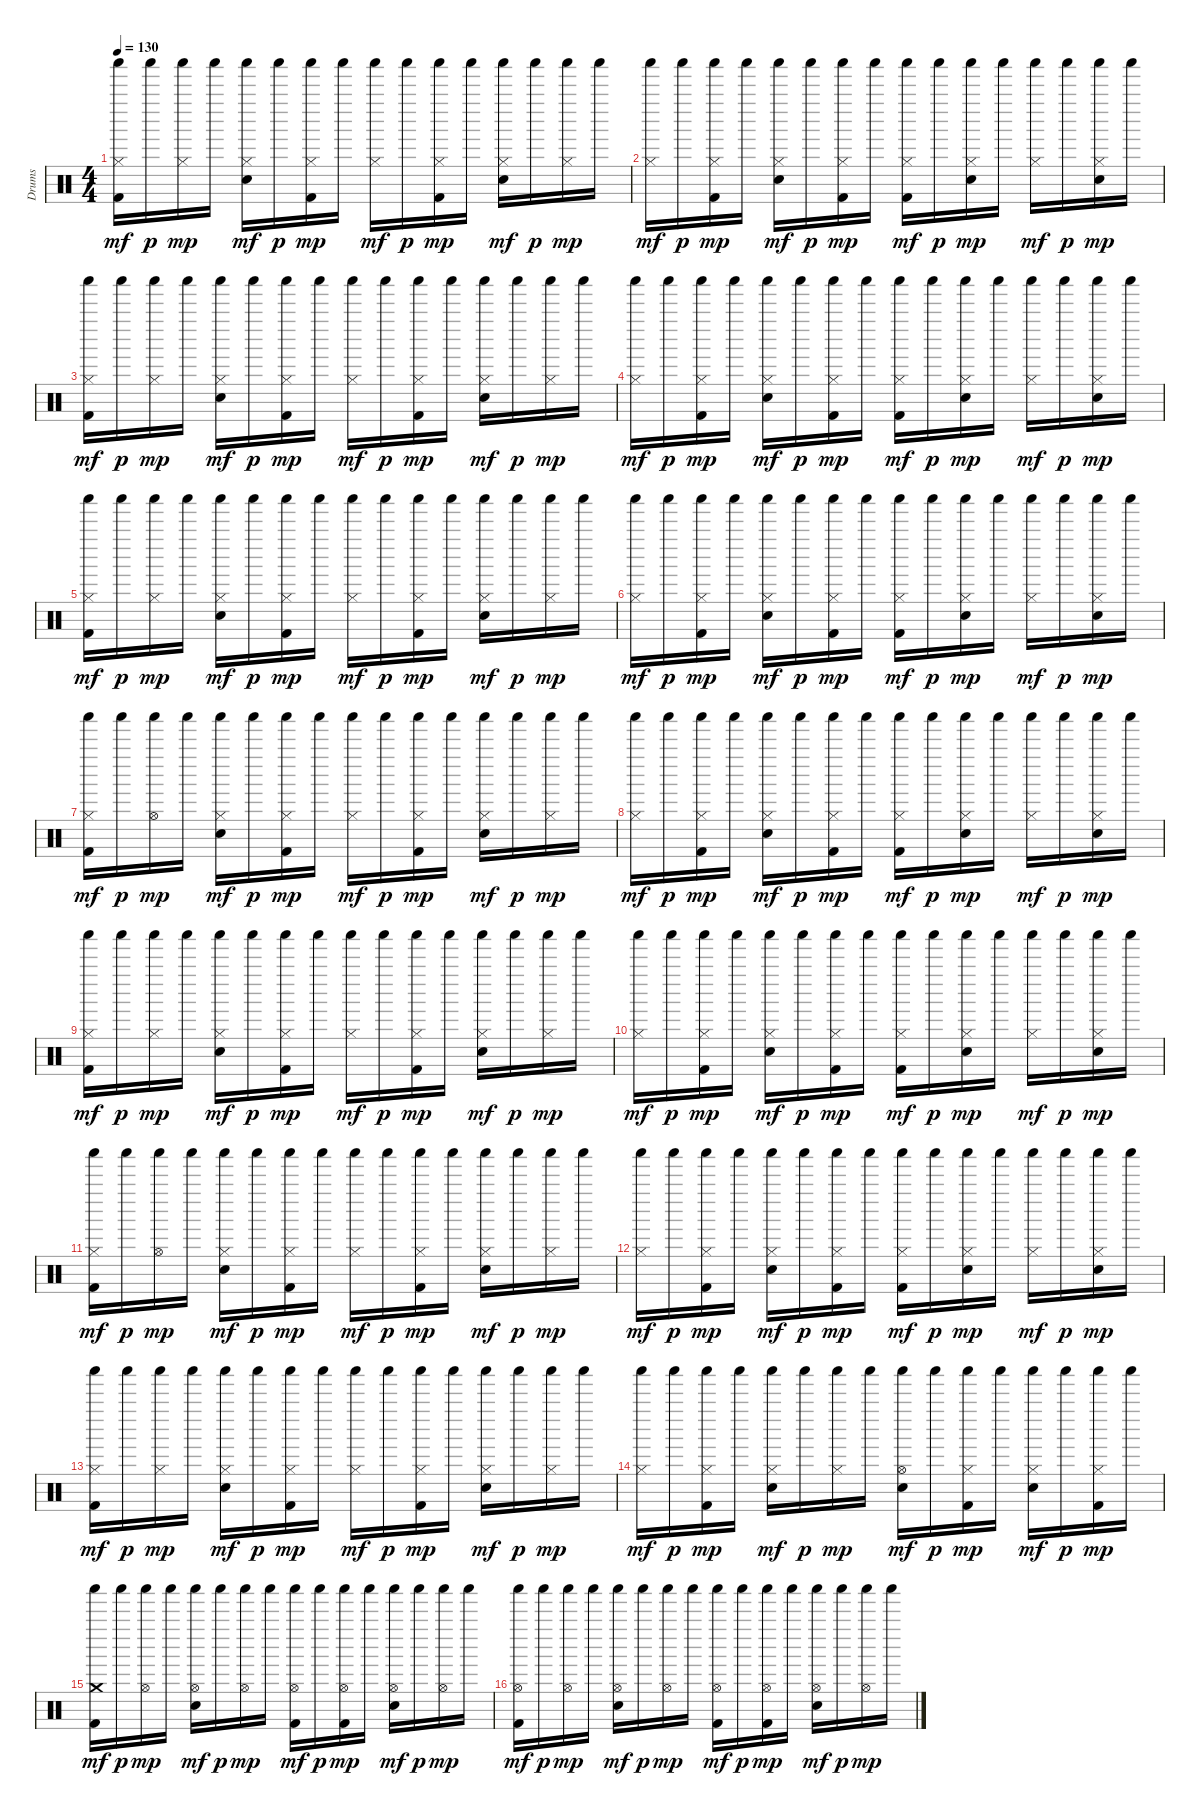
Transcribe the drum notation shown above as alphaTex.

\track ("Drums" "Drums") {instrument percussion}
\staff {score}
\articulation defaults
\ts (4 4)
\tempo 130
\clef neutral
\ks c
("Kick (hit) 2" "Hi-Hat (closed)" "Shaker (hit)").16{dy mf} "Shaker (hit)".16{dy p} ("Hi-Hat (closed)" "Shaker (hit)").16{dy mp} "Shaker (hit)".16 ("Snare (hit) 2" "Hi-Hat (closed)" "Shaker (hit)").16{dy mf} "Shaker (hit)".16{dy p} ("Kick (hit) 2" "Hi-Hat (closed)" "Shaker (hit)").16{dy mp} "Shaker (hit)".16 ("Hi-Hat (closed)" "Shaker (hit)").16{dy mf} "Shaker (hit)".16{dy p} ("Kick (hit) 2" "Hi-Hat (closed)" "Shaker (hit)").16{dy mp} "Shaker (hit)".16 ("Snare (hit) 2" "Hi-Hat (closed)" "Shaker (hit)").16{dy mf} "Shaker (hit)".16{dy p} ("Hi-Hat (closed)" "Shaker (hit)").16{dy mp} "Shaker (hit)".16 |
("Hi-Hat (closed)" "Shaker (hit)").16{dy mf} "Shaker (hit)".16{dy p} ("Kick (hit) 2" "Hi-Hat (closed)" "Shaker (hit)").16{dy mp} "Shaker (hit)".16 ("Snare (hit) 2" "Hi-Hat (closed)" "Shaker (hit)").16{dy mf} "Shaker (hit)".16{dy p} ("Kick (hit) 2" "Hi-Hat (closed)" "Shaker (hit)").16{dy mp} "Shaker (hit)".16 ("Kick (hit) 2" "Hi-Hat (closed)" "Shaker (hit)").16{dy mf} "Shaker (hit)".16{dy p} ("Snare (hit) 2" "Hi-Hat (closed)" "Shaker (hit)").16{dy mp} "Shaker (hit)".16 ("Hi-Hat (closed)" "Shaker (hit)").16{dy mf} "Shaker (hit)".16{dy p} ("Snare (hit) 2" "Hi-Hat (closed)" "Shaker (hit)").16{dy mp} "Shaker (hit)".16 |
("Kick (hit) 2" "Hi-Hat (closed)" "Shaker (hit)").16{dy mf} "Shaker (hit)".16{dy p} ("Hi-Hat (closed)" "Shaker (hit)").16{dy mp} "Shaker (hit)".16 ("Snare (hit) 2" "Hi-Hat (closed)" "Shaker (hit)").16{dy mf} "Shaker (hit)".16{dy p} ("Kick (hit) 2" "Hi-Hat (closed)" "Shaker (hit)").16{dy mp} "Shaker (hit)".16 ("Hi-Hat (closed)" "Shaker (hit)").16{dy mf} "Shaker (hit)".16{dy p} ("Kick (hit) 2" "Hi-Hat (closed)" "Shaker (hit)").16{dy mp} "Shaker (hit)".16 ("Snare (hit) 2" "Hi-Hat (closed)" "Shaker (hit)").16{dy mf} "Shaker (hit)".16{dy p} ("Hi-Hat (closed)" "Shaker (hit)").16{dy mp} "Shaker (hit)".16 |
("Hi-Hat (closed)" "Shaker (hit)").16{dy mf} "Shaker (hit)".16{dy p} ("Kick (hit) 2" "Hi-Hat (closed)" "Shaker (hit)").16{dy mp} "Shaker (hit)".16 ("Snare (hit) 2" "Hi-Hat (closed)" "Shaker (hit)").16{dy mf} "Shaker (hit)".16{dy p} ("Kick (hit) 2" "Hi-Hat (closed)" "Shaker (hit)").16{dy mp} "Shaker (hit)".16 ("Kick (hit) 2" "Hi-Hat (closed)" "Shaker (hit)").16{dy mf} "Shaker (hit)".16{dy p} ("Snare (hit) 2" "Hi-Hat (closed)" "Shaker (hit)").16{dy mp} "Shaker (hit)".16 ("Hi-Hat (closed)" "Shaker (hit)").16{dy mf} "Shaker (hit)".16{dy p} ("Snare (hit) 2" "Hi-Hat (closed)" "Shaker (hit)").16{dy mp} "Shaker (hit)".16 |
("Kick (hit) 2" "Hi-Hat (closed)" "Shaker (hit)").16{dy mf} "Shaker (hit)".16{dy p} ("Hi-Hat (closed)" "Shaker (hit)").16{dy mp} "Shaker (hit)".16 ("Snare (hit) 2" "Hi-Hat (closed)" "Shaker (hit)").16{dy mf} "Shaker (hit)".16{dy p} ("Kick (hit) 2" "Hi-Hat (closed)" "Shaker (hit)").16{dy mp} "Shaker (hit)".16 ("Hi-Hat (closed)" "Shaker (hit)").16{dy mf} "Shaker (hit)".16{dy p} ("Kick (hit) 2" "Hi-Hat (closed)" "Shaker (hit)").16{dy mp} "Shaker (hit)".16 ("Snare (hit) 2" "Hi-Hat (closed)" "Shaker (hit)").16{dy mf} "Shaker (hit)".16{dy p} ("Hi-Hat (closed)" "Shaker (hit)").16{dy mp} "Shaker (hit)".16 |
("Hi-Hat (closed)" "Shaker (hit)").16{dy mf} "Shaker (hit)".16{dy p} ("Kick (hit) 2" "Hi-Hat (closed)" "Shaker (hit)").16{dy mp} "Shaker (hit)".16 ("Snare (hit) 2" "Hi-Hat (closed)" "Shaker (hit)").16{dy mf} "Shaker (hit)".16{dy p} ("Kick (hit) 2" "Hi-Hat (closed)" "Shaker (hit)").16{dy mp} "Shaker (hit)".16 ("Kick (hit) 2" "Hi-Hat (closed)" "Shaker (hit)").16{dy mf} "Shaker (hit)".16{dy p} ("Snare (hit) 2" "Hi-Hat (closed)" "Shaker (hit)").16{dy mp} "Shaker (hit)".16 ("Hi-Hat (closed)" "Shaker (hit)").16{dy mf} "Shaker (hit)".16{dy p} ("Snare (hit) 2" "Hi-Hat (closed)" "Shaker (hit)").16{dy mp} "Shaker (hit)".16 |
("Kick (hit) 2" "Hi-Hat (closed)" "Shaker (hit)").16{dy mf} "Shaker (hit)".16{dy p} ("Hi-Hat (open)" "Shaker (hit)").16{dy mp} "Shaker (hit)".16 ("Snare (hit) 2" "Hi-Hat (closed)" "Shaker (hit)").16{dy mf} "Shaker (hit)".16{dy p} ("Kick (hit) 2" "Hi-Hat (closed)" "Shaker (hit)").16{dy mp} "Shaker (hit)".16 ("Hi-Hat (closed)" "Shaker (hit)").16{dy mf} "Shaker (hit)".16{dy p} ("Kick (hit) 2" "Hi-Hat (closed)" "Shaker (hit)").16{dy mp} "Shaker (hit)".16 ("Snare (hit) 2" "Hi-Hat (closed)" "Shaker (hit)").16{dy mf} "Shaker (hit)".16{dy p} ("Hi-Hat (closed)" "Shaker (hit)").16{dy mp} "Shaker (hit)".16 |
("Hi-Hat (closed)" "Shaker (hit)").16{dy mf} "Shaker (hit)".16{dy p} ("Kick (hit) 2" "Hi-Hat (closed)" "Shaker (hit)").16{dy mp} "Shaker (hit)".16 ("Snare (hit) 2" "Hi-Hat (closed)" "Shaker (hit)").16{dy mf} "Shaker (hit)".16{dy p} ("Kick (hit) 2" "Hi-Hat (closed)" "Shaker (hit)").16{dy mp} "Shaker (hit)".16 ("Kick (hit) 2" "Hi-Hat (closed)" "Shaker (hit)").16{dy mf} "Shaker (hit)".16{dy p} ("Snare (hit) 2" "Hi-Hat (closed)" "Shaker (hit)").16{dy mp} "Shaker (hit)".16 ("Hi-Hat (closed)" "Shaker (hit)").16{dy mf} "Shaker (hit)".16{dy p} ("Snare (hit) 2" "Hi-Hat (closed)" "Shaker (hit)").16{dy mp} "Shaker (hit)".16 |
("Kick (hit) 2" "Hi-Hat (closed)" "Shaker (hit)").16{dy mf} "Shaker (hit)".16{dy p} ("Hi-Hat (closed)" "Shaker (hit)").16{dy mp} "Shaker (hit)".16 ("Snare (hit) 2" "Hi-Hat (closed)" "Shaker (hit)").16{dy mf} "Shaker (hit)".16{dy p} ("Kick (hit) 2" "Hi-Hat (closed)" "Shaker (hit)").16{dy mp} "Shaker (hit)".16 ("Hi-Hat (closed)" "Shaker (hit)").16{dy mf} "Shaker (hit)".16{dy p} ("Kick (hit) 2" "Hi-Hat (closed)" "Shaker (hit)").16{dy mp} "Shaker (hit)".16 ("Snare (hit) 2" "Hi-Hat (closed)" "Shaker (hit)").16{dy mf} "Shaker (hit)".16{dy p} ("Hi-Hat (closed)" "Shaker (hit)").16{dy mp} "Shaker (hit)".16 |
("Hi-Hat (closed)" "Shaker (hit)").16{dy mf} "Shaker (hit)".16{dy p} ("Kick (hit) 2" "Hi-Hat (closed)" "Shaker (hit)").16{dy mp} "Shaker (hit)".16 ("Snare (hit) 2" "Hi-Hat (closed)" "Shaker (hit)").16{dy mf} "Shaker (hit)".16{dy p} ("Kick (hit) 2" "Hi-Hat (closed)" "Shaker (hit)").16{dy mp} "Shaker (hit)".16 ("Kick (hit) 2" "Hi-Hat (closed)" "Shaker (hit)").16{dy mf} "Shaker (hit)".16{dy p} ("Snare (hit) 2" "Hi-Hat (closed)" "Shaker (hit)").16{dy mp} "Shaker (hit)".16 ("Hi-Hat (closed)" "Shaker (hit)").16{dy mf} "Shaker (hit)".16{dy p} ("Snare (hit) 2" "Hi-Hat (closed)" "Shaker (hit)").16{dy mp} "Shaker (hit)".16 |
("Kick (hit) 2" "Hi-Hat (closed)" "Shaker (hit)").16{dy mf} "Shaker (hit)".16{dy p} ("Hi-Hat (open)" "Shaker (hit)").16{dy mp} "Shaker (hit)".16 ("Snare (hit) 2" "Hi-Hat (closed)" "Shaker (hit)").16{dy mf} "Shaker (hit)".16{dy p} ("Kick (hit) 2" "Hi-Hat (closed)" "Shaker (hit)").16{dy mp} "Shaker (hit)".16 ("Hi-Hat (closed)" "Shaker (hit)").16{dy mf} "Shaker (hit)".16{dy p} ("Kick (hit) 2" "Hi-Hat (closed)" "Shaker (hit)").16{dy mp} "Shaker (hit)".16 ("Snare (hit) 2" "Hi-Hat (closed)" "Shaker (hit)").16{dy mf} "Shaker (hit)".16{dy p} ("Hi-Hat (closed)" "Shaker (hit)").16{dy mp} "Shaker (hit)".16 |
("Hi-Hat (closed)" "Shaker (hit)").16{dy mf} "Shaker (hit)".16{dy p} ("Kick (hit) 2" "Hi-Hat (closed)" "Shaker (hit)").16{dy mp} "Shaker (hit)".16 ("Snare (hit) 2" "Hi-Hat (closed)" "Shaker (hit)").16{dy mf} "Shaker (hit)".16{dy p} ("Kick (hit) 2" "Hi-Hat (closed)" "Shaker (hit)").16{dy mp} "Shaker (hit)".16 ("Kick (hit) 2" "Hi-Hat (closed)" "Shaker (hit)").16{dy mf} "Shaker (hit)".16{dy p} ("Snare (hit) 2" "Hi-Hat (closed)" "Shaker (hit)").16{dy mp} "Shaker (hit)".16 ("Hi-Hat (closed)" "Shaker (hit)").16{dy mf} "Shaker (hit)".16{dy p} ("Snare (hit) 2" "Hi-Hat (closed)" "Shaker (hit)").16{dy mp} "Shaker (hit)".16 |
("Kick (hit) 2" "Hi-Hat (closed)" "Shaker (hit)").16{dy mf} "Shaker (hit)".16{dy p} ("Hi-Hat (closed)" "Shaker (hit)").16{dy mp} "Shaker (hit)".16 ("Snare (hit) 2" "Hi-Hat (closed)" "Shaker (hit)").16{dy mf} "Shaker (hit)".16{dy p} ("Kick (hit) 2" "Hi-Hat (closed)" "Shaker (hit)").16{dy mp} "Shaker (hit)".16 ("Hi-Hat (closed)" "Shaker (hit)").16{dy mf} "Shaker (hit)".16{dy p} ("Kick (hit) 2" "Hi-Hat (closed)" "Shaker (hit)").16{dy mp} "Shaker (hit)".16 ("Snare (hit) 2" "Hi-Hat (closed)" "Shaker (hit)").16{dy mf} "Shaker (hit)".16{dy p} ("Hi-Hat (closed)" "Shaker (hit)").16{dy mp} "Shaker (hit)".16 |
("Hi-Hat (closed)" "Shaker (hit)").16{dy mf} "Shaker (hit)".16{dy p} ("Kick (hit) 2" "Hi-Hat (closed)" "Shaker (hit)").16{dy mp} "Shaker (hit)".16 ("Snare (hit) 2" "Hi-Hat (closed)" "Shaker (hit)").16{dy mf} "Shaker (hit)".16{dy p} ("Hi-Hat (closed)" "Shaker (hit)").16{dy mp} "Shaker (hit)".16 ("Snare (hit) 2" "Hi-Hat (open)" "Shaker (hit)").16{dy mf} "Shaker (hit)".16{dy p} ("Kick (hit) 2" "Hi-Hat (closed)" "Shaker (hit)").16{dy mp} "Shaker (hit)".16 ("Snare (hit) 2" "Hi-Hat (closed)" "Shaker (hit)").16{dy mf} "Shaker (hit)".16{dy p} ("Kick (hit) 2" "Hi-Hat (closed)" "Shaker (hit)").16{dy mp} "Shaker (hit)".16 |
("Kick (hit) 2" "Crash medium (hit)" "Shaker (hit)").16{dy mf} "Shaker (hit)".16{dy p} ("Hi-Hat (open)" "Shaker (hit)").16{dy mp} "Shaker (hit)".16 ("Snare (hit) 2" "Hi-Hat (open)" "Shaker (hit)").16{dy mf} "Shaker (hit)".16{dy p} ("Hi-Hat (open)" "Shaker (hit)").16{dy mp} "Shaker (hit)".16 ("Kick (hit) 2" "Hi-Hat (open)" "Shaker (hit)").16{dy mf} "Shaker (hit)".16{dy p} ("Kick (hit) 2" "Hi-Hat (open)" "Shaker (hit)").16{dy mp} "Shaker (hit)".16 ("Snare (hit) 2" "Hi-Hat (open)" "Shaker (hit)").16{dy mf} "Shaker (hit)".16{dy p} ("Hi-Hat (open)" "Shaker (hit)").16{dy mp} "Shaker (hit)".16 |
("Kick (hit) 2" "Hi-Hat (open)" "Shaker (hit)").16{dy mf} "Shaker (hit)".16{dy p} ("Hi-Hat (open)" "Shaker (hit)").16{dy mp} "Shaker (hit)".16 ("Snare (hit) 2" "Hi-Hat (open)" "Shaker (hit)").16{dy mf} "Shaker (hit)".16{dy p} ("Hi-Hat (open)" "Shaker (hit)").16{dy mp} "Shaker (hit)".16 ("Kick (hit) 2" "Hi-Hat (open)" "Shaker (hit)").16{dy mf} "Shaker (hit)".16{dy p} ("Kick (hit) 2" "Hi-Hat (open)" "Shaker (hit)").16{dy mp} "Shaker (hit)".16 ("Snare (hit) 2" "Hi-Hat (open)" "Shaker (hit)").16{dy mf} "Shaker (hit)".16{dy p} ("Hi-Hat (open)" "Shaker (hit)").16{dy mp} "Shaker (hit)".16
